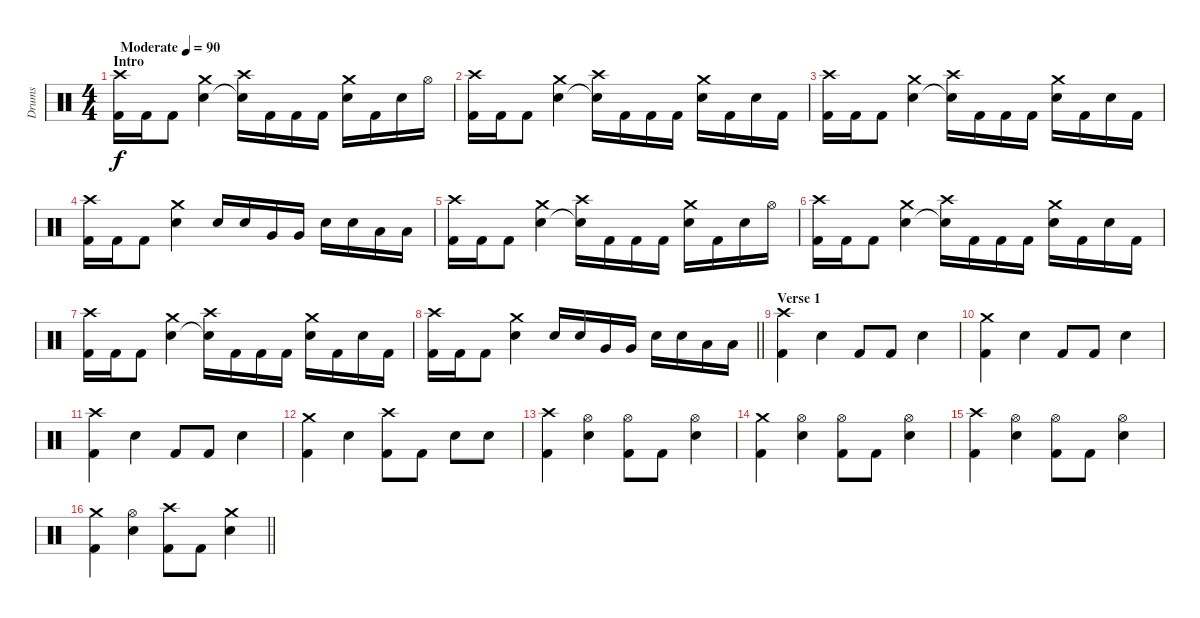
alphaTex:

\track ("Drums" "Drums") {instrument percussion}
\staff {score}
\articulation defaults
\ts (4 4)
\section ("" "Intro")
\tempo (90 "Moderate")
\clef neutral
\ks c
("Kick (hit) 2" "Crash high (hit)").16{dy f} "Kick (hit) 2".16 "Kick (hit) 2".8 ("Snare (hit) 2" "Crash medium (hit)").4 ("Snare (hit)"{t} "Crash high (hit)").16 "Kick (hit) 2".16 "Kick (hit) 2".16 "Kick (hit) 2".16 ("Snare (hit) 2" "Crash medium (hit)").16 "Kick (hit) 2".16 "Snare (hit) 2".16 "Hi-Hat (open)".16 |
("Kick (hit) 2" "Crash high (hit)").16 "Kick (hit) 2".16 "Kick (hit) 2".8 ("Snare (hit) 2" "Crash medium (hit)").4 ("Snare (hit)"{t} "Crash high (hit)").16 "Kick (hit) 2".16 "Kick (hit) 2".16 "Kick (hit) 2".16 ("Snare (hit) 2" "Crash medium (hit)").16 "Kick (hit) 2".16 "Snare (hit) 2".16 "Kick (hit) 2".16 |
("Kick (hit) 2" "Crash high (hit)").16 "Kick (hit) 2".16 "Kick (hit) 2".8 ("Snare (hit) 2" "Crash medium (hit)").4 ("Snare (hit)"{t} "Crash high (hit)").16 "Kick (hit) 2".16 "Kick (hit) 2".16 "Kick (hit) 2".16 ("Snare (hit) 2" "Crash medium (hit)").16 "Kick (hit) 2".16 "Snare (hit) 2".16 "Kick (hit) 2".16 |
("Kick (hit) 2" "Crash high (hit)").16 "Kick (hit) 2".16 "Kick (hit) 2".8 ("Snare (hit) 2" "Crash medium (hit)").4 "Snare (hit) 2".16 "Snare (hit) 2".16 "Very Low Tom (hit)".16 "Very Low Tom (hit)".16 "Snare (hit) 2".16 "Snare (hit) 2".16 "Low Floor Tom (hit)".16 "Low Floor Tom (hit)".16 |
("Kick (hit) 2" "Crash high (hit)").16 "Kick (hit) 2".16 "Kick (hit) 2".8 ("Snare (hit) 2" "Crash medium (hit)").4 ("Snare (hit)"{t} "Crash high (hit)").16 "Kick (hit) 2".16 "Kick (hit) 2".16 "Kick (hit) 2".16 ("Snare (hit) 2" "Crash medium (hit)").16 "Kick (hit) 2".16 "Snare (hit) 2".16 "Hi-Hat (open)".16 |
("Kick (hit) 2" "Crash high (hit)").16 "Kick (hit) 2".16 "Kick (hit) 2".8 ("Snare (hit) 2" "Crash medium (hit)").4 ("Snare (hit)"{t} "Crash high (hit)").16 "Kick (hit) 2".16 "Kick (hit) 2".16 "Kick (hit) 2".16 ("Snare (hit) 2" "Crash medium (hit)").16 "Kick (hit) 2".16 "Snare (hit) 2".16 "Kick (hit) 2".16 |
("Kick (hit) 2" "Crash high (hit)").16 "Kick (hit) 2".16 "Kick (hit) 2".8 ("Snare (hit) 2" "Crash medium (hit)").4 ("Snare (hit)"{t} "Crash high (hit)").16 "Kick (hit) 2".16 "Kick (hit) 2".16 "Kick (hit) 2".16 ("Snare (hit) 2" "Crash medium (hit)").16 "Kick (hit) 2".16 "Snare (hit) 2".16 "Kick (hit) 2".16 |
\barLineRight lightlight
("Kick (hit) 2" "Crash high (hit)").16 "Kick (hit) 2".16 "Kick (hit) 2".8 ("Snare (hit) 2" "Crash medium (hit)").4 "Snare (hit) 2".16 "Snare (hit) 2".16 "Very Low Tom (hit)".16 "Very Low Tom (hit)".16 "Snare (hit) 2".16 "Snare (hit) 2".16 "Low Floor Tom (hit)".16 "Low Floor Tom (hit)".16 |
\section ("" "Verse 1")
("Kick (hit) 2" "Crash high (hit)").4 "Snare (hit) 2".4 "Kick (hit) 2".8 "Kick (hit) 2".8 "Snare (hit) 2".4 |
("Kick (hit) 2" "Crash medium (hit)").4 "Snare (hit) 2".4 "Kick (hit) 2".8 "Kick (hit) 2".8 "Snare (hit) 2".4 |
("Kick (hit) 2" "Crash high (hit)").4 "Snare (hit) 2".4 "Kick (hit) 2".8 "Kick (hit) 2".8 "Snare (hit) 2".4 |
("Kick (hit) 2" "Crash medium (hit)").4 "Snare (hit) 2".4 ("Kick (hit) 2" "Crash high (hit)").8 "Kick (hit) 2".8 "Snare (hit) 2".8 "Snare (hit) 2".8 |
("Kick (hit) 2" "Crash high (hit)").4 ("Snare (hit) 2" "Hi-Hat (open)").4 ("Kick (hit) 2" "Hi-Hat (open)").8 "Kick (hit) 2".8 ("Snare (hit) 2" "Hi-Hat (open)").4 |
("Kick (hit) 2" "Crash medium (hit)").4 ("Snare (hit) 2" "Hi-Hat (open)").4 ("Kick (hit) 2" "Hi-Hat (open)").8 "Kick (hit) 2".8 ("Snare (hit) 2" "Hi-Hat (open)").4 |
("Kick (hit) 2" "Crash high (hit)").4 ("Snare (hit) 2" "Hi-Hat (open)").4 ("Kick (hit) 2" "Hi-Hat (open)").8 "Kick (hit) 2".8 ("Snare (hit) 2" "Hi-Hat (open)").4 |
\barLineRight lightlight
("Kick (hit) 2" "Crash medium (hit)").4 ("Snare (hit) 2" "Hi-Hat (open)").4 ("Kick (hit) 2" "Crash high (hit)").8 "Kick (hit) 2".8 ("Snare (hit) 2" "Crash medium (hit)").4
